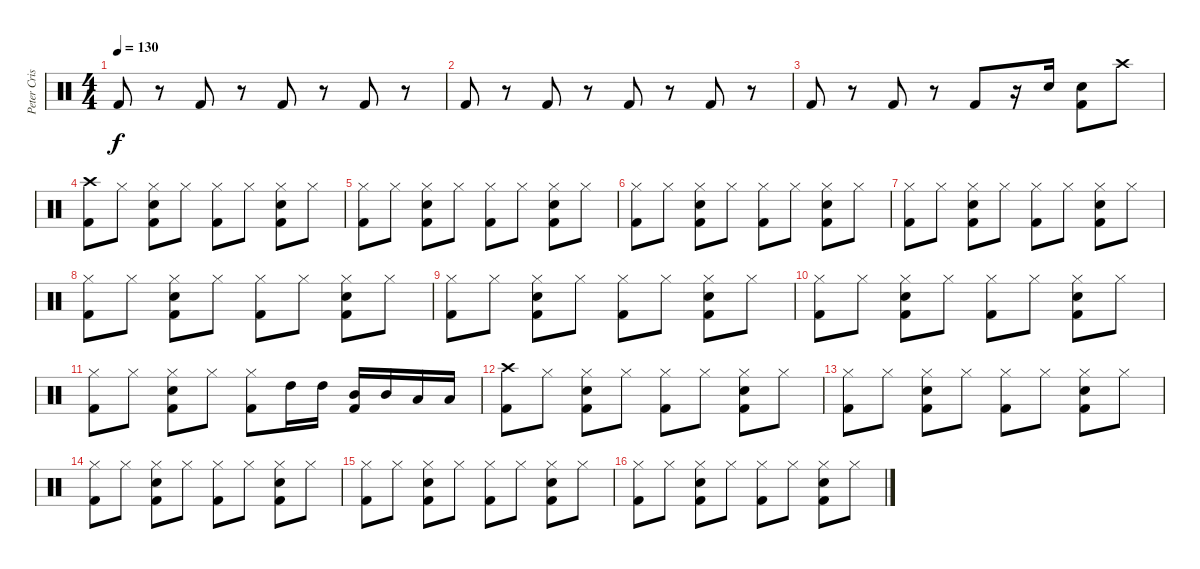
\track ("Peter Criss" "Peter Cris") {instrument percussion}
\staff {score}
\articulation defaults
\ts (4 4)
\tempo 130
\clef neutral
\ks c "Kick (hit) 2".8{dy f}
r.8 "Kick (hit) 2".8 r.8 "Kick (hit) 2".8 r.8 "Kick (hit) 2".8 r.8 |
"Kick (hit) 2".8 r.8 "Kick (hit) 2".8 r.8 "Kick (hit) 2".8 r.8 "Kick (hit) 2".8 r.8 |
"Kick (hit) 2".8 r.8 "Kick (hit) 2".8 r.8 "Kick (hit) 2".8 r.16 "Electric Snare (hit)".16 ("Electric Snare (hit)" "Kick (hit) 2").8 "Crash high (hit)".8 |
("Crash high (hit)" "Kick (hit) 2").8 "Hi-Hat (closed)".8 ("Hi-Hat (closed)" "Electric Snare (hit)" "Kick (hit) 2").8 "Hi-Hat (closed)".8 ("Hi-Hat (closed)" "Kick (hit) 2").8 "Hi-Hat (closed)".8 ("Hi-Hat (closed)" "Electric Snare (hit)" "Kick (hit) 2").8 "Hi-Hat (closed)".8 |
("Hi-Hat (closed)" "Kick (hit) 2").8 "Hi-Hat (closed)".8 ("Hi-Hat (closed)" "Electric Snare (hit)" "Kick (hit) 2").8 "Hi-Hat (closed)".8 ("Hi-Hat (closed)" "Kick (hit) 2").8 "Hi-Hat (closed)".8 ("Hi-Hat (closed)" "Electric Snare (hit)" "Kick (hit) 2").8 "Hi-Hat (closed)".8 |
("Hi-Hat (closed)" "Kick (hit) 2").8 "Hi-Hat (closed)".8 ("Hi-Hat (closed)" "Electric Snare (hit)" "Kick (hit) 2").8 "Hi-Hat (closed)".8 ("Hi-Hat (closed)" "Kick (hit) 2").8 "Hi-Hat (closed)".8 ("Hi-Hat (closed)" "Electric Snare (hit)" "Kick (hit) 2").8 "Hi-Hat (closed)".8 |
("Hi-Hat (closed)" "Kick (hit) 2").8 "Hi-Hat (closed)".8 ("Hi-Hat (closed)" "Electric Snare (hit)" "Kick (hit) 2").8 "Hi-Hat (closed)".8 ("Hi-Hat (closed)" "Kick (hit) 2").8 "Hi-Hat (closed)".8 ("Hi-Hat (closed)" "Electric Snare (hit)" "Kick (hit) 2").8 "Hi-Hat (closed)".8 |
("Hi-Hat (closed)" "Kick (hit) 2").8 "Hi-Hat (closed)".8 ("Hi-Hat (closed)" "Electric Snare (hit)" "Kick (hit) 2").8 "Hi-Hat (closed)".8 ("Hi-Hat (closed)" "Kick (hit) 2").8 "Hi-Hat (closed)".8 ("Hi-Hat (closed)" "Electric Snare (hit)" "Kick (hit) 2").8 "Hi-Hat (closed)".8 |
("Hi-Hat (closed)" "Kick (hit) 2").8 "Hi-Hat (closed)".8 ("Hi-Hat (closed)" "Electric Snare (hit)" "Kick (hit) 2").8 "Hi-Hat (closed)".8 ("Hi-Hat (closed)" "Kick (hit) 2").8 "Hi-Hat (closed)".8 ("Hi-Hat (closed)" "Electric Snare (hit)" "Kick (hit) 2").8 "Hi-Hat (closed)".8 |
("Hi-Hat (closed)" "Kick (hit) 2").8 "Hi-Hat (closed)".8 ("Hi-Hat (closed)" "Electric Snare (hit)" "Kick (hit) 2").8 "Hi-Hat (closed)".8 ("Hi-Hat (closed)" "Kick (hit) 2").8 "Hi-Hat (closed)".8 ("Hi-Hat (closed)" "Electric Snare (hit)" "Kick (hit) 2").8 "Hi-Hat (closed)".8 |
("Hi-Hat (closed)" "Kick (hit) 2").8 "Hi-Hat (closed)".8 ("Hi-Hat (closed)" "Electric Snare (hit)" "Kick (hit) 2").8 "Hi-Hat (closed)".8 ("Hi-Hat (closed)" "Kick (hit) 2").8 "High Tom (hit)".16 "High Tom (hit)".16 ("Mid Tom (hit)" "Kick (hit) 2").16 "Mid Tom (hit)".16 "Low Tom (hit)".16 "Low Tom (hit)".16 |
("Crash high (hit)" "Kick (hit) 2").8 "Hi-Hat (closed)".8 ("Hi-Hat (closed)" "Electric Snare (hit)" "Kick (hit) 2").8 "Hi-Hat (closed)".8 ("Hi-Hat (closed)" "Kick (hit) 2").8 "Hi-Hat (closed)".8 ("Hi-Hat (closed)" "Electric Snare (hit)" "Kick (hit) 2").8 "Hi-Hat (closed)".8 |
("Hi-Hat (closed)" "Kick (hit) 2").8 "Hi-Hat (closed)".8 ("Hi-Hat (closed)" "Electric Snare (hit)" "Kick (hit) 2").8 "Hi-Hat (closed)".8 ("Hi-Hat (closed)" "Kick (hit) 2").8 "Hi-Hat (closed)".8 ("Hi-Hat (closed)" "Electric Snare (hit)" "Kick (hit) 2").8 "Hi-Hat (closed)".8 |
("Hi-Hat (closed)" "Kick (hit) 2").8 "Hi-Hat (closed)".8 ("Hi-Hat (closed)" "Electric Snare (hit)" "Kick (hit) 2").8 "Hi-Hat (closed)".8 ("Hi-Hat (closed)" "Kick (hit) 2").8 "Hi-Hat (closed)".8 ("Hi-Hat (closed)" "Electric Snare (hit)" "Kick (hit) 2").8 "Hi-Hat (closed)".8 |
("Hi-Hat (closed)" "Kick (hit) 2").8 "Hi-Hat (closed)".8 ("Hi-Hat (closed)" "Electric Snare (hit)" "Kick (hit) 2").8 "Hi-Hat (closed)".8 ("Hi-Hat (closed)" "Kick (hit) 2").8 "Hi-Hat (closed)".8 ("Hi-Hat (closed)" "Electric Snare (hit)" "Kick (hit) 2").8 "Hi-Hat (closed)".8 |
("Hi-Hat (closed)" "Kick (hit) 2").8 "Hi-Hat (closed)".8 ("Hi-Hat (closed)" "Electric Snare (hit)" "Kick (hit) 2").8 "Hi-Hat (closed)".8 ("Hi-Hat (closed)" "Kick (hit) 2").8 "Hi-Hat (closed)".8 ("Hi-Hat (closed)" "Electric Snare (hit)" "Kick (hit) 2").8 "Hi-Hat (closed)".8
